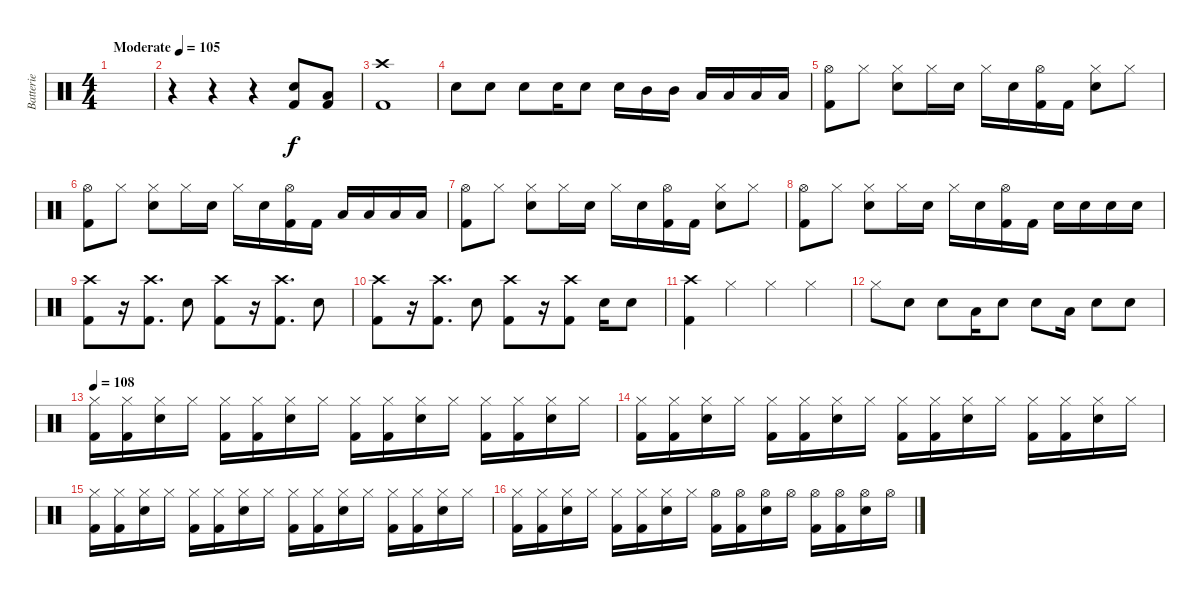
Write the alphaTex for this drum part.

\track ("Batterie" "Batterie") {instrument percussion}
\staff {score}
\articulation defaults
\ts (4 4)
\tempo (105 "Moderate")
\tempo 115
\tempo (105 "Moderate")
\clef neutral
\ks c
|
r.4 r.4 r.4 ("Electric Snare (hit)" "Kick (hit) 2").8 ("Low Tom (hit)" "Kick (hit) 2").8 |
("Crash high (hit)" "Kick (hit) 2").1 |
"Electric Snare (hit)".8 "Electric Snare (hit)".8 "Electric Snare (hit)".8 "Electric Snare (hit)".16 "Electric Snare (hit)".8 "Electric Snare (hit)".16 "Mid Tom (hit)".16 "Mid Tom (hit)".16 "Low Tom (hit)".16 "Low Tom (hit)".16 "Low Floor Tom (hit)".16 "Low Floor Tom (hit)".16 |
("Hi-Hat (open)" "Kick (hit) 2").8 "Hi-Hat (closed)".8 ("Hi-Hat (closed)" "Electric Snare (hit)").8 "Hi-Hat (closed)".16 "Electric Snare (hit)".16 "Hi-Hat (closed)".16 "Electric Snare (hit)".16 ("Hi-Hat (open)" "Kick (hit) 2").16 "Kick (hit) 2".16 ("Electric Snare (hit)" "Hi-Hat (closed)").8 "Hi-Hat (closed)".8 |
("Hi-Hat (open)" "Kick (hit) 2").8 "Hi-Hat (closed)".8 ("Hi-Hat (closed)" "Electric Snare (hit)").8 "Hi-Hat (closed)".16 "Electric Snare (hit)".16 "Hi-Hat (closed)".16 "Electric Snare (hit)".16 ("Hi-Hat (open)" "Kick (hit) 2").16 "Kick (hit) 2".16 "Low Tom (hit)".16 "Low Tom (hit)".16 "Low Floor Tom (hit)".16 "Low Floor Tom (hit)".16 |
("Hi-Hat (open)" "Kick (hit) 2").8 "Hi-Hat (closed)".8 ("Hi-Hat (closed)" "Electric Snare (hit)").8 "Hi-Hat (closed)".16 "Electric Snare (hit)".16 "Hi-Hat (closed)".16 "Electric Snare (hit)".16 ("Hi-Hat (open)" "Kick (hit) 2").16 "Kick (hit) 2".16 ("Electric Snare (hit)" "Hi-Hat (closed)").8 "Hi-Hat (closed)".8 |
("Hi-Hat (open)" "Kick (hit) 2").8 "Hi-Hat (closed)".8 ("Hi-Hat (closed)" "Electric Snare (hit)").8 "Hi-Hat (closed)".16 "Electric Snare (hit)".16 "Hi-Hat (closed)".16 "Electric Snare (hit)".16 ("Hi-Hat (open)" "Kick (hit) 2").16 "Kick (hit) 2".16 "Electric Snare (hit)".16 "Electric Snare (hit)".16 "Electric Snare (hit)".16 "Electric Snare (hit)".16 |
("Crash high (hit)" "Kick (hit) 2").8 r.16 ("Crash high (hit)" "Kick (hit) 2").8{d} "Electric Snare (hit)".8 ("Crash high (hit)" "Kick (hit) 2").8 r.16 ("Crash high (hit)" "Kick (hit) 2").8{d} "Electric Snare (hit)".8 |
("Crash high (hit)" "Kick (hit) 2").8 r.16 ("Crash high (hit)" "Kick (hit) 2").8{d} "Electric Snare (hit)".8 ("Crash high (hit)" "Kick (hit) 2").8 r.16 ("Crash high (hit)" "Kick (hit) 2").8 "Electric Snare (hit)".16 "Electric Snare (hit)".8 |
("Crash high (hit)" "Kick (hit) 2").4 "Hi-Hat (closed)".4 "Hi-Hat (closed)".4 "Hi-Hat (closed)".4 |
"Hi-Hat (closed)".8 "Electric Snare (hit)".8 "Electric Snare (hit)".8 "Low Floor Tom (hit)".16 "Electric Snare (hit)".8 "Electric Snare (hit)".8 "Low Floor Tom (hit)".16 "Electric Snare (hit)".8 "Electric Snare (hit)".8 |
\tempo 108
("Kick (hit) 2" "Hi-Hat (closed)").16 ("Kick (hit) 2" "Hi-Hat (closed)").16 ("Electric Snare (hit)" "Hi-Hat (closed)").16 "Hi-Hat (closed)".16 ("Kick (hit) 2" "Hi-Hat (closed)").16 ("Kick (hit) 2" "Hi-Hat (closed)").16 ("Electric Snare (hit)" "Hi-Hat (closed)").16 "Hi-Hat (closed)".16 ("Kick (hit) 2" "Hi-Hat (closed)").16 ("Kick (hit) 2" "Hi-Hat (closed)").16 ("Electric Snare (hit)" "Hi-Hat (closed)").16 "Hi-Hat (closed)".16 ("Kick (hit) 2" "Hi-Hat (closed)").16 ("Kick (hit) 2" "Hi-Hat (closed)").16 ("Electric Snare (hit)" "Hi-Hat (closed)").16 "Hi-Hat (closed)".16 |
("Kick (hit) 2" "Hi-Hat (closed)").16 ("Kick (hit) 2" "Hi-Hat (closed)").16 ("Electric Snare (hit)" "Hi-Hat (closed)").16 "Hi-Hat (closed)".16 ("Kick (hit) 2" "Hi-Hat (closed)").16 ("Kick (hit) 2" "Hi-Hat (closed)").16 ("Electric Snare (hit)" "Hi-Hat (closed)").16 "Hi-Hat (closed)".16 ("Kick (hit) 2" "Hi-Hat (closed)").16 ("Kick (hit) 2" "Hi-Hat (closed)").16 ("Electric Snare (hit)" "Hi-Hat (closed)").16 "Hi-Hat (closed)".16 ("Kick (hit) 2" "Hi-Hat (closed)").16 ("Kick (hit) 2" "Hi-Hat (closed)").16 ("Electric Snare (hit)" "Hi-Hat (closed)").16 "Hi-Hat (closed)".16 |
("Kick (hit) 2" "Hi-Hat (closed)").16 ("Kick (hit) 2" "Hi-Hat (closed)").16 ("Electric Snare (hit)" "Hi-Hat (closed)").16 "Hi-Hat (closed)".16 ("Kick (hit) 2" "Hi-Hat (closed)").16 ("Kick (hit) 2" "Hi-Hat (closed)").16 ("Electric Snare (hit)" "Hi-Hat (closed)").16 "Hi-Hat (closed)".16 ("Kick (hit) 2" "Hi-Hat (closed)").16 ("Kick (hit) 2" "Hi-Hat (closed)").16 ("Electric Snare (hit)" "Hi-Hat (closed)").16 "Hi-Hat (closed)".16 ("Kick (hit) 2" "Hi-Hat (closed)").16 ("Kick (hit) 2" "Hi-Hat (closed)").16 ("Electric Snare (hit)" "Hi-Hat (closed)").16 "Hi-Hat (closed)".16 |
("Kick (hit) 2" "Hi-Hat (closed)").16 ("Kick (hit) 2" "Hi-Hat (closed)").16 ("Electric Snare (hit)" "Hi-Hat (closed)").16 "Hi-Hat (closed)".16 ("Kick (hit) 2" "Hi-Hat (closed)").16 ("Kick (hit) 2" "Hi-Hat (closed)").16 ("Electric Snare (hit)" "Hi-Hat (closed)").16 "Hi-Hat (closed)".16 ("Kick (hit) 2" "Hi-Hat (open)").16 ("Kick (hit) 2" "Hi-Hat (open)").16 ("Electric Snare (hit)" "Hi-Hat (open)").16 "Hi-Hat (open)".16 ("Kick (hit) 2" "Hi-Hat (open)").16 ("Kick (hit) 2" "Hi-Hat (open)").16 ("Electric Snare (hit)" "Hi-Hat (open)").16 "Hi-Hat (open)".16
